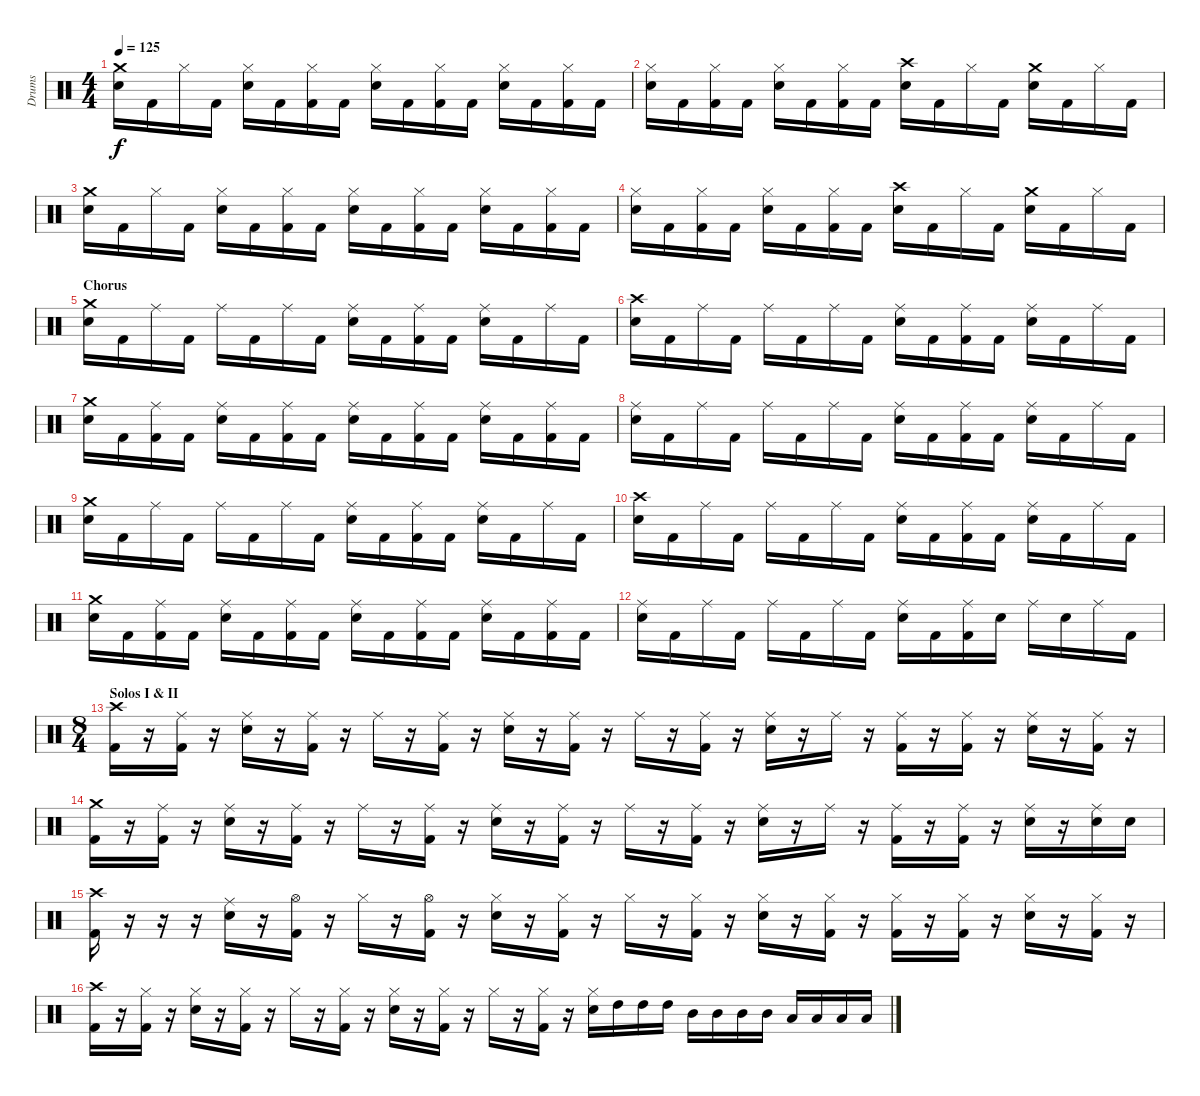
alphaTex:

\track ("Drums" "Drums") {instrument percussion}
\staff {score}
\articulation defaults
\ts (4 4)
\tempo 125
\clef neutral
\ks c
("Crash medium (hit)" "Electric Snare (hit)").16{dy f} "Kick (hit) 2".16 "Hi-Hat (closed)".16 "Kick (hit) 2".16 ("Hi-Hat (closed)" "Electric Snare (hit)").16 "Kick (hit) 2".16 ("Hi-Hat (closed)" "Kick (hit) 2").16 "Kick (hit) 2".16 ("Hi-Hat (closed)" "Electric Snare (hit)").16 "Kick (hit) 2".16 ("Hi-Hat (closed)" "Kick (hit) 2").16 "Kick (hit) 2".16 ("Hi-Hat (closed)" "Electric Snare (hit)").16 "Kick (hit) 2".16 ("Hi-Hat (closed)" "Kick (hit) 2").16 "Kick (hit) 2".16 |
("Hi-Hat (closed)" "Electric Snare (hit)").16 "Kick (hit) 2".16 ("Hi-Hat (closed)" "Kick (hit) 2").16 "Kick (hit) 2".16 ("Hi-Hat (closed)" "Electric Snare (hit)").16 "Kick (hit) 2".16 ("Hi-Hat (closed)" "Kick (hit) 2").16 "Kick (hit) 2".16 ("Crash high (hit)" "Electric Snare (hit)").16 "Kick (hit) 2".16 "Hi-Hat (closed)".16 "Kick (hit) 2".16 ("Crash medium (hit)" "Electric Snare (hit)").16 "Kick (hit) 2".16 "Hi-Hat (closed)".16 "Kick (hit) 2".16 |
("Crash medium (hit)" "Electric Snare (hit)").16 "Kick (hit) 2".16 "Hi-Hat (closed)".16 "Kick (hit) 2".16 ("Hi-Hat (closed)" "Electric Snare (hit)").16 "Kick (hit) 2".16 ("Hi-Hat (closed)" "Kick (hit) 2").16 "Kick (hit) 2".16 ("Hi-Hat (closed)" "Electric Snare (hit)").16 "Kick (hit) 2".16 ("Hi-Hat (closed)" "Kick (hit) 2").16 "Kick (hit) 2".16 ("Hi-Hat (closed)" "Electric Snare (hit)").16 "Kick (hit) 2".16 ("Hi-Hat (closed)" "Kick (hit) 2").16 "Kick (hit) 2".16 |
("Hi-Hat (closed)" "Electric Snare (hit)").16 "Kick (hit) 2".16 ("Hi-Hat (closed)" "Kick (hit) 2").16 "Kick (hit) 2".16 ("Hi-Hat (closed)" "Electric Snare (hit)").16 "Kick (hit) 2".16 ("Hi-Hat (closed)" "Kick (hit) 2").16 "Kick (hit) 2".16 ("Crash high (hit)" "Electric Snare (hit)").16 "Kick (hit) 2".16 "Hi-Hat (closed)".16 "Kick (hit) 2".16 ("Crash medium (hit)" "Electric Snare (hit)").16 "Kick (hit) 2".16 "Hi-Hat (closed)".16 "Kick (hit) 2".16 |
\section ("" "Chorus")
("Crash medium (hit)" "Electric Snare (hit)").16 "Kick (hit) 2".16 "Ride (middle)".16 "Kick (hit) 2".16 "Ride (middle)".16 "Kick (hit) 2".16 "Ride (middle)".16 "Kick (hit) 2".16 ("Ride (middle)" "Electric Snare (hit)").16 "Kick (hit) 2".16 ("Ride (middle)" "Kick (hit) 2").16 "Kick (hit) 2".16 ("Ride (middle)" "Electric Snare (hit)").16 "Kick (hit) 2".16 "Ride (middle)".16 "Kick (hit) 2".16 |
("Crash high (hit)" "Electric Snare (hit)").16 "Kick (hit) 2".16 "Ride (middle)".16 "Kick (hit) 2".16 "Ride (middle)".16 "Kick (hit) 2".16 "Ride (middle)".16 "Kick (hit) 2".16 ("Ride (middle)" "Electric Snare (hit)").16 "Kick (hit) 2".16 ("Ride (middle)" "Kick (hit) 2").16 "Kick (hit) 2".16 ("Ride (middle)" "Electric Snare (hit)").16 "Kick (hit) 2".16 "Ride (middle)".16 "Kick (hit) 2".16 |
("Crash medium (hit)" "Electric Snare (hit)").16 "Kick (hit) 2".16 ("Ride (middle)" "Kick (hit) 2").16 "Kick (hit) 2".16 ("Ride (middle)" "Electric Snare (hit)").16 "Kick (hit) 2".16 ("Ride (middle)" "Kick (hit) 2").16 "Kick (hit) 2".16 ("Ride (middle)" "Electric Snare (hit)").16 "Kick (hit) 2".16 ("Ride (middle)" "Kick (hit) 2").16 "Kick (hit) 2".16 ("Ride (middle)" "Electric Snare (hit)").16 "Kick (hit) 2".16 ("Ride (middle)" "Kick (hit) 2").16 "Kick (hit) 2".16 |
("Ride (middle)" "Electric Snare (hit)").16 "Kick (hit) 2".16 "Ride (middle)".16 "Kick (hit) 2".16 "Ride (middle)".16 "Kick (hit) 2".16 "Ride (middle)".16 "Kick (hit) 2".16 ("Ride (middle)" "Electric Snare (hit)").16 "Kick (hit) 2".16 ("Ride (middle)" "Kick (hit) 2").16 "Kick (hit) 2".16 ("Ride (middle)" "Electric Snare (hit)").16 "Kick (hit) 2".16 "Ride (middle)".16 "Kick (hit) 2".16 |
("Crash medium (hit)" "Electric Snare (hit)").16 "Kick (hit) 2".16 "Ride (middle)".16 "Kick (hit) 2".16 "Ride (middle)".16 "Kick (hit) 2".16 "Ride (middle)".16 "Kick (hit) 2".16 ("Ride (middle)" "Electric Snare (hit)").16 "Kick (hit) 2".16 ("Ride (middle)" "Kick (hit) 2").16 "Kick (hit) 2".16 ("Ride (middle)" "Electric Snare (hit)").16 "Kick (hit) 2".16 "Ride (middle)".16 "Kick (hit) 2".16 |
("Crash high (hit)" "Electric Snare (hit)").16 "Kick (hit) 2".16 "Ride (middle)".16 "Kick (hit) 2".16 "Ride (middle)".16 "Kick (hit) 2".16 "Ride (middle)".16 "Kick (hit) 2".16 ("Ride (middle)" "Electric Snare (hit)").16 "Kick (hit) 2".16 ("Ride (middle)" "Kick (hit) 2").16 "Kick (hit) 2".16 ("Ride (middle)" "Electric Snare (hit)").16 "Kick (hit) 2".16 "Ride (middle)".16 "Kick (hit) 2".16 |
("Crash medium (hit)" "Electric Snare (hit)").16 "Kick (hit) 2".16 ("Ride (middle)" "Kick (hit) 2").16 "Kick (hit) 2".16 ("Ride (middle)" "Electric Snare (hit)").16 "Kick (hit) 2".16 ("Ride (middle)" "Kick (hit) 2").16 "Kick (hit) 2".16 ("Ride (middle)" "Electric Snare (hit)").16 "Kick (hit) 2".16 ("Ride (middle)" "Kick (hit) 2").16 "Kick (hit) 2".16 ("Ride (middle)" "Electric Snare (hit)").16 "Kick (hit) 2".16 ("Ride (middle)" "Kick (hit) 2").16 "Kick (hit) 2".16 |
("Ride (middle)" "Electric Snare (hit)").16 "Kick (hit) 2".16 "Ride (middle)".16 "Kick (hit) 2".16 "Ride (middle)".16 "Kick (hit) 2".16 "Ride (middle)".16 "Kick (hit) 2".16 ("Ride (middle)" "Electric Snare (hit)").16 "Kick (hit) 2".16 ("Ride (middle)" "Kick (hit) 2").16 "Electric Snare (hit)".16 "Ride (middle)".16 "Electric Snare (hit)".16 "Ride (middle)".16 "Kick (hit) 2".16 |
\ts (8 4)
\section ("" "Solos I & II")
("Crash high (hit)" "Kick (hit) 2").16 r.16 ("Ride (middle)" "Kick (hit) 2").16 r.16 ("Ride (middle)" "Electric Snare (hit)").16 r.16 ("Ride (middle)" "Kick (hit) 2").16 r.16 "Ride (middle)".16 r.16 ("Ride (middle)" "Kick (hit) 2").16 r.16 ("Ride (middle)" "Electric Snare (hit)").16 r.16 ("Ride (middle)" "Kick (hit) 2").16 r.16 "Ride (middle)".16 r.16 ("Ride (middle)" "Kick (hit) 2").16 r.16 ("Ride (middle)" "Electric Snare (hit)").16 r.16 "Ride (middle)".16 r.16 ("Ride (middle)" "Kick (hit) 2").16 r.16 ("Ride (middle)" "Kick (hit) 2").16 r.16 ("Ride (middle)" "Electric Snare (hit)").16 r.16 ("Ride (middle)" "Kick (hit) 2").16 r.16 |
("Crash medium (hit)" "Kick (hit) 2").16 r.16 ("Ride (middle)" "Kick (hit) 2").16 r.16 ("Ride (middle)" "Electric Snare (hit)").16 r.16 ("Ride (middle)" "Kick (hit) 2").16 r.16 "Ride (middle)".16 r.16 ("Ride (middle)" "Kick (hit) 2").16 r.16 ("Ride (middle)" "Electric Snare (hit)").16 r.16 ("Ride (middle)" "Kick (hit) 2").16 r.16 "Ride (middle)".16 r.16 ("Ride (middle)" "Kick (hit) 2").16 r.16 ("Ride (middle)" "Electric Snare (hit)").16 r.16 "Ride (middle)".16 r.16 ("Ride (middle)" "Kick (hit) 2").16 r.16 ("Ride (middle)" "Kick (hit) 2").16 r.16 ("Ride (middle)" "Electric Snare (hit)").16 r.16 ("Ride (middle)" "Electric Snare (hit)").16 "Electric Snare (hit)".16 |
("Crash high (hit)" "Kick (hit) 2").16 r.16 r.16 r.16 ("Ride (middle)" "Electric Snare (hit)").16 r.16 ("Hi-Hat (open)" "Kick (hit) 2").16 r.16 "Hi-Hat (closed)".16 r.16 ("Hi-Hat (open)" "Kick (hit) 2").16 r.16 ("Hi-Hat (closed)" "Electric Snare (hit)").16 r.16 ("Hi-Hat (closed)" "Kick (hit) 2").16 r.16 "Hi-Hat (closed)".16 r.16 ("Hi-Hat (closed)" "Kick (hit) 2").16 r.16 ("Hi-Hat (closed)" "Electric Snare (hit)").16 r.16 ("Hi-Hat (closed)" "Kick (hit) 2").16 r.16 ("Hi-Hat (closed)" "Kick (hit) 2").16 r.16 ("Hi-Hat (closed)" "Kick (hit) 2").16 r.16 ("Hi-Hat (closed)" "Electric Snare (hit)").16 r.16 ("Hi-Hat (closed)" "Kick (hit) 2").16 r.16 |
("Crash high (hit)" "Kick (hit) 2").16 r.16 ("Hi-Hat (closed)" "Kick (hit) 2").16 r.16 ("Hi-Hat (closed)" "Electric Snare (hit)").16 r.16 ("Hi-Hat (closed)" "Kick (hit) 2").16 r.16 "Hi-Hat (closed)".16 r.16 ("Hi-Hat (closed)" "Kick (hit) 2").16 r.16 ("Hi-Hat (closed)" "Electric Snare (hit)").16 r.16 ("Hi-Hat (closed)" "Kick (hit) 2").16 r.16 "Hi-Hat (closed)".16 r.16 ("Hi-Hat (closed)" "Kick (hit) 2").16 r.16 ("Hi-Hat (closed)" "Electric Snare (hit)").16 "High Tom (hit)".16 "High Tom (hit)".16 "High Tom (hit)".16 "Mid Tom (hit)".16 "Mid Tom (hit)".16 "Mid Tom (hit)".16 "Mid Tom (hit)".16 "Low Tom (hit)".16 "Low Tom (hit)".16 "Low Tom (hit)".16 "Low Tom (hit)".16
